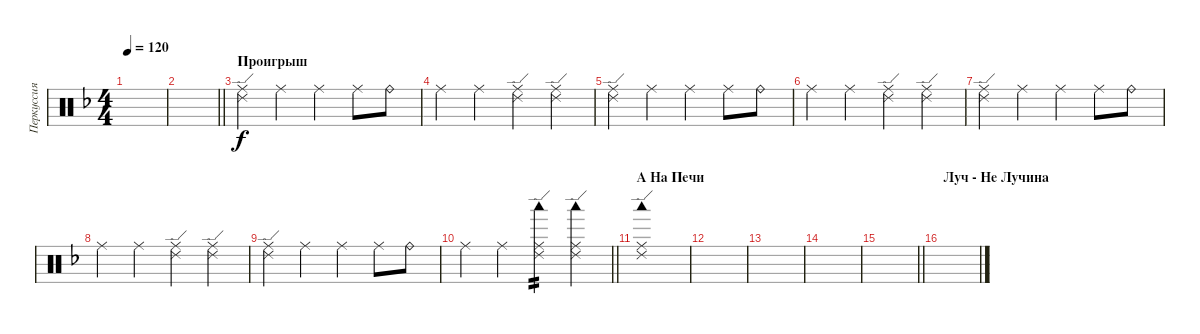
\track ("Перкуссия" "Перкуссия") {instrument percussion}
\staff {score}
\articulation defaults
\ts (4 4)
\tempo 120
\clef neutral
\ks dminor
|
\barLineRight lightlight
|
\section ("" "Проигрыш")
("Ride (middle)" "Ride (edge) 2").4 "Ride (middle)".4 "Ride (middle)".4 "Ride (middle)".8 "Ride (bell)".8 |
"Ride (middle)".4 "Ride (middle)".4 ("Ride (middle)" "Ride (edge) 2").4 ("Ride (middle)" "Ride (edge) 2").4 |
("Ride (middle)" "Ride (edge) 2").4 "Ride (middle)".4 "Ride (middle)".4 "Ride (middle)".8 "Ride (bell)".8 |
"Ride (middle)".4 "Ride (middle)".4 ("Ride (middle)" "Ride (edge) 2").4 ("Ride (middle)" "Ride (edge) 2").4 |
("Ride (middle)" "Ride (edge) 2").4 "Ride (middle)".4 "Ride (middle)".4 "Ride (middle)".8 "Ride (bell)".8 |
"Ride (middle)".4 "Ride (middle)".4 ("Ride (middle)" "Ride (edge) 2").4 ("Ride (middle)" "Ride (edge) 2").4 |
("Ride (middle)" "Ride (edge) 2").4 "Ride (middle)".4 "Ride (middle)".4 "Ride (middle)".8 "Ride (bell)".8 |
\barLineRight lightlight "Ride (middle)".4 "Ride (middle)".4
("Ride (middle)" "Ride (edge) 2" "Woodblock low (hit)").4{tp 2} ("Ride (middle)" "Ride (edge) 2" "Woodblock low (hit)").4 |
\section ("" "А На Печи")
("Ride (middle)" "Ride (edge) 2" "Woodblock low (hit)").1 |
|
|
|
\barLineRight lightlight
|
\section ("" "Луч - Не Лучина")
